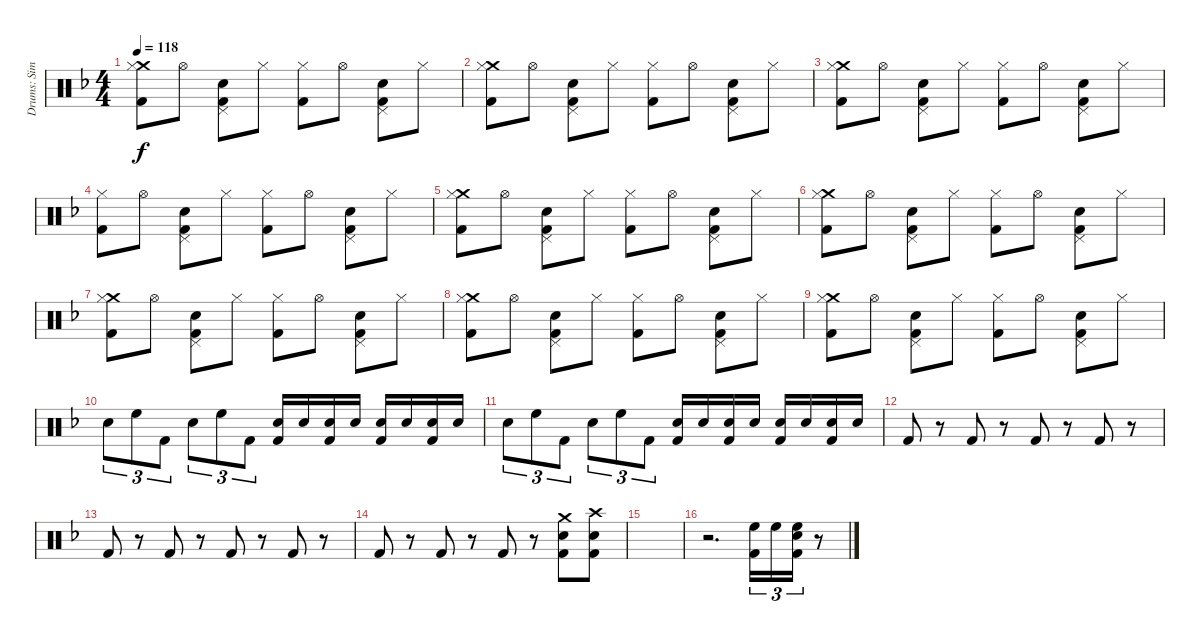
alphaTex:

\track ("Drums: Simon Kirke" "Drums: Sim") {instrument percussion}
\staff {score}
\articulation defaults
\ts (4 4)
\tempo 118
\clef neutral
\ks f
("Crash medium (hit)" "Hi-Hat (closed)" "Kick (hit) 2").8{dy f} "Hi-Hat (open)".8 ("Pedal Hi-Hat (hit)" "Snare (hit) 2" "Kick (hit) 2").8 "Hi-Hat (closed)".8 ("Hi-Hat (closed)" "Kick (hit) 2").8 "Hi-Hat (open)".8 ("Pedal Hi-Hat (hit)" "Snare (hit) 2" "Kick (hit) 2").8 "Hi-Hat (closed)".8 |
("Crash medium (hit)" "Hi-Hat (closed)" "Kick (hit) 2").8 "Hi-Hat (open)".8 ("Pedal Hi-Hat (hit)" "Snare (hit) 2" "Kick (hit) 2").8 "Hi-Hat (closed)".8 ("Hi-Hat (closed)" "Kick (hit) 2").8 "Hi-Hat (open)".8 ("Pedal Hi-Hat (hit)" "Snare (hit) 2" "Kick (hit) 2").8 "Hi-Hat (closed)".8 |
("Crash medium (hit)" "Hi-Hat (closed)" "Kick (hit) 2").8 "Hi-Hat (open)".8 ("Pedal Hi-Hat (hit)" "Snare (hit) 2" "Kick (hit) 2").8 "Hi-Hat (closed)".8 ("Hi-Hat (closed)" "Kick (hit) 2").8 "Hi-Hat (open)".8 ("Pedal Hi-Hat (hit)" "Snare (hit) 2" "Kick (hit) 2").8 "Hi-Hat (closed)".8 |
("Hi-Hat (closed)" "Kick (hit) 2").8 "Hi-Hat (open)".8 ("Pedal Hi-Hat (hit)" "Snare (hit) 2" "Kick (hit) 2").8 "Hi-Hat (closed)".8 ("Hi-Hat (closed)" "Kick (hit) 2").8 "Hi-Hat (open)".8 ("Pedal Hi-Hat (hit)" "Snare (hit) 2" "Kick (hit) 2").8 "Hi-Hat (closed)".8 |
("Crash medium (hit)" "Hi-Hat (closed)" "Kick (hit) 2").8 "Hi-Hat (open)".8 ("Pedal Hi-Hat (hit)" "Snare (hit) 2" "Kick (hit) 2").8 "Hi-Hat (closed)".8 ("Hi-Hat (closed)" "Kick (hit) 2").8 "Hi-Hat (open)".8 ("Pedal Hi-Hat (hit)" "Snare (hit) 2" "Kick (hit) 2").8 "Hi-Hat (closed)".8 |
("Crash medium (hit)" "Hi-Hat (closed)" "Kick (hit) 2").8 "Hi-Hat (open)".8 ("Pedal Hi-Hat (hit)" "Snare (hit) 2" "Kick (hit) 2").8 "Hi-Hat (closed)".8 ("Hi-Hat (closed)" "Kick (hit) 2").8 "Hi-Hat (open)".8 ("Pedal Hi-Hat (hit)" "Snare (hit) 2" "Kick (hit) 2").8 "Hi-Hat (closed)".8 |
("Crash medium (hit)" "Hi-Hat (closed)" "Kick (hit) 2").8 "Hi-Hat (open)".8 ("Pedal Hi-Hat (hit)" "Snare (hit) 2" "Kick (hit) 2").8 "Hi-Hat (closed)".8 ("Hi-Hat (closed)" "Kick (hit) 2").8 "Hi-Hat (open)".8 ("Pedal Hi-Hat (hit)" "Snare (hit) 2" "Kick (hit) 2").8 "Hi-Hat (closed)".8 |
("Crash medium (hit)" "Hi-Hat (closed)" "Kick (hit) 2").8 "Hi-Hat (open)".8 ("Pedal Hi-Hat (hit)" "Snare (hit) 2" "Kick (hit) 2").8 "Hi-Hat (closed)".8 ("Hi-Hat (closed)" "Kick (hit) 2").8 "Hi-Hat (open)".8 ("Pedal Hi-Hat (hit)" "Snare (hit) 2" "Kick (hit) 2").8 "Hi-Hat (closed)".8 |
("Crash medium (hit)" "Hi-Hat (closed)" "Kick (hit) 2").8 "Hi-Hat (open)".8 ("Pedal Hi-Hat (hit)" "Snare (hit) 2" "Kick (hit) 2").8 "Hi-Hat (closed)".8 ("Hi-Hat (closed)" "Kick (hit) 2").8 "Hi-Hat (open)".8 ("Pedal Hi-Hat (hit)" "Snare (hit) 2" "Kick (hit) 2").8 "Hi-Hat (closed)".8 |
"Snare (hit) 2".8{tu (3 2)} "High Floor Tom (hit)".8{tu (3 2)} "Kick (hit) 2".8{tu (3 2)} "Snare (hit) 2".8{tu (3 2)} "High Floor Tom (hit)".8{tu (3 2)} "Kick (hit) 2".8{tu (3 2)} ("Snare (hit) 2" "Kick (hit) 2").16 "Snare (hit) 2".16 ("Snare (hit) 2" "Kick (hit) 2").16 "Snare (hit) 2".16 ("Snare (hit) 2" "Kick (hit) 2").16 "Snare (hit) 2".16 ("Snare (hit) 2" "Kick (hit) 2").16 "Snare (hit) 2".16 |
"Snare (hit) 2".8{tu (3 2)} "High Floor Tom (hit)".8{tu (3 2)} "Kick (hit) 2".8{tu (3 2)} "Snare (hit) 2".8{tu (3 2)} "High Floor Tom (hit)".8{tu (3 2)} "Kick (hit) 2".8{tu (3 2)} ("Snare (hit) 2" "Kick (hit) 2").16 "Snare (hit) 2".16 ("Snare (hit) 2" "Kick (hit) 2").16 "Snare (hit) 2".16 ("Snare (hit) 2" "Kick (hit) 2").16 "Snare (hit) 2".16 ("Snare (hit) 2" "Kick (hit) 2").16 "Snare (hit) 2".16 |
"Kick (hit) 2".8 r.8 "Kick (hit) 2".8 r.8 "Kick (hit) 2".8 r.8 "Kick (hit) 2".8 r.8 |
"Kick (hit) 2".8 r.8 "Kick (hit) 2".8 r.8 "Kick (hit) 2".8 r.8 "Kick (hit) 2".8 r.8 |
"Kick (hit) 2".8 r.8 "Kick (hit) 2".8 r.8 "Kick (hit) 2".8 r.8 ("Crash medium (hit)" "Snare (hit) 2" "Kick (hit) 2").8 ("Crash high (hit)" "Snare (hit) 2" "Kick (hit) 2").8 |
|
r.2{d} ("High Floor Tom (hit)" "Kick (hit) 2").16{tu (3 2)} "High Floor Tom (hit)".16{tu (3 2)} ("High Floor Tom (hit)" "Snare (hit) 2" "Kick (hit) 2").16{tu (3 2)} r.8
